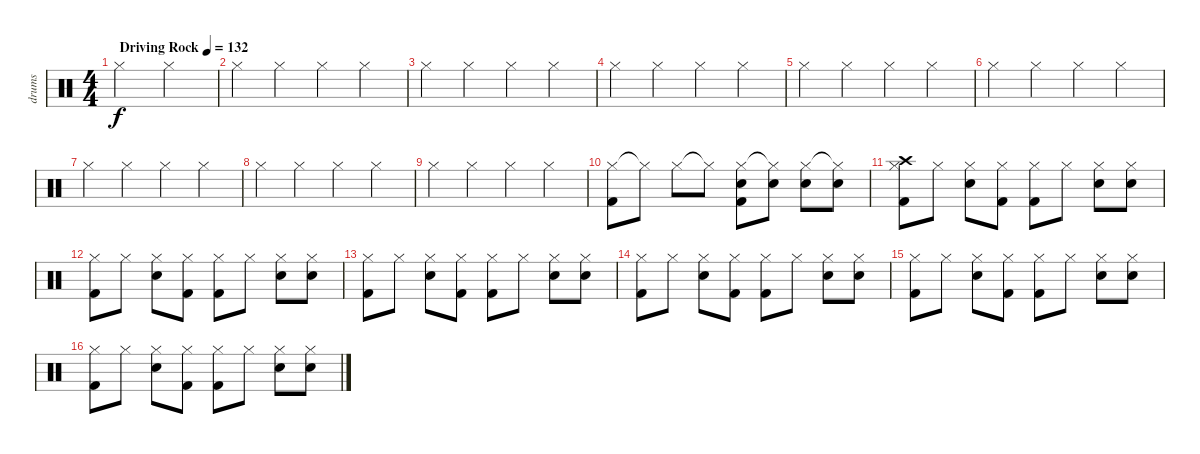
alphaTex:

\track ("drums" "drums") {instrument percussion}
\staff {score}
\articulation defaults
\ts (4 4)
\tempo (132 "Driving Rock")
\clef neutral
\ks c "Hi-Hat (closed)".2{dy f} "Hi-Hat (closed)".2
|
"Hi-Hat (closed)".4 "Hi-Hat (closed)".4 "Hi-Hat (closed)".4 "Hi-Hat (closed)".4 |
"Hi-Hat (closed)".4 "Hi-Hat (closed)".4 "Hi-Hat (closed)".4 "Hi-Hat (closed)".4 |
"Hi-Hat (closed)".4 "Hi-Hat (closed)".4 "Hi-Hat (closed)".4 "Hi-Hat (closed)".4 |
"Hi-Hat (closed)".4 "Hi-Hat (closed)".4 "Hi-Hat (closed)".4 "Hi-Hat (closed)".4 |
"Hi-Hat (closed)".4 "Hi-Hat (closed)".4 "Hi-Hat (closed)".4 "Hi-Hat (closed)".4 |
"Hi-Hat (closed)".4 "Hi-Hat (closed)".4 "Hi-Hat (closed)".4 "Hi-Hat (closed)".4 |
"Hi-Hat (closed)".4 "Hi-Hat (closed)".4 "Hi-Hat (closed)".4 "Hi-Hat (closed)".4 |
"Hi-Hat (closed)".4 "Hi-Hat (closed)".4 "Hi-Hat (closed)".4 "Hi-Hat (closed)".4 |
("Hi-Hat (closed)" "Kick (hit) 2").8 "Hi-Hat (closed)"{t}.8 "Hi-Hat (closed)".8 "Hi-Hat (closed)"{t}.8 ("Hi-Hat (closed)" "Snare (hit) 2" "Kick (hit) 2").8 ("Hi-Hat (closed)"{t} "Snare (hit) 2").8 ("Hi-Hat (closed)" "Snare (hit) 2").8 ("Hi-Hat (closed)"{t} "Snare (hit) 2").8 |
("Hi-Hat (closed)" "Crash high (hit)" "Kick (hit) 2").8 "Hi-Hat (closed)".8 ("Hi-Hat (closed)" "Snare (hit) 2").8 ("Hi-Hat (closed)" "Kick (hit) 2").8 ("Hi-Hat (closed)" "Kick (hit) 2").8 "Hi-Hat (closed)".8 ("Hi-Hat (closed)" "Snare (hit) 2").8 ("Hi-Hat (closed)" "Snare (hit) 2").8 |
("Hi-Hat (closed)" "Kick (hit) 2").8 "Hi-Hat (closed)".8 ("Hi-Hat (closed)" "Snare (hit) 2").8 ("Hi-Hat (closed)" "Kick (hit) 2").8 ("Hi-Hat (closed)" "Kick (hit) 2").8 "Hi-Hat (closed)".8 ("Hi-Hat (closed)" "Snare (hit) 2").8 ("Hi-Hat (closed)" "Snare (hit) 2").8 |
("Hi-Hat (closed)" "Kick (hit) 2").8 "Hi-Hat (closed)".8 ("Hi-Hat (closed)" "Snare (hit) 2").8 ("Hi-Hat (closed)" "Kick (hit) 2").8 ("Hi-Hat (closed)" "Kick (hit) 2").8 "Hi-Hat (closed)".8 ("Hi-Hat (closed)" "Snare (hit) 2").8 ("Hi-Hat (closed)" "Snare (hit) 2").8 |
("Hi-Hat (closed)" "Kick (hit) 2").8 "Hi-Hat (closed)".8 ("Hi-Hat (closed)" "Snare (hit) 2").8 ("Hi-Hat (closed)" "Kick (hit) 2").8 ("Hi-Hat (closed)" "Kick (hit) 2").8 "Hi-Hat (closed)".8 ("Hi-Hat (closed)" "Snare (hit) 2").8 ("Hi-Hat (closed)" "Snare (hit) 2").8 |
("Hi-Hat (closed)" "Kick (hit) 2").8 "Hi-Hat (closed)".8 ("Hi-Hat (closed)" "Snare (hit) 2").8 ("Hi-Hat (closed)" "Kick (hit) 2").8 ("Hi-Hat (closed)" "Kick (hit) 2").8 "Hi-Hat (closed)".8 ("Hi-Hat (closed)" "Snare (hit) 2").8 ("Hi-Hat (closed)" "Snare (hit) 2").8 |
("Hi-Hat (closed)" "Kick (hit) 2").8 "Hi-Hat (closed)".8 ("Hi-Hat (closed)" "Snare (hit) 2").8 ("Hi-Hat (closed)" "Kick (hit) 2").8 ("Hi-Hat (closed)" "Kick (hit) 2").8 "Hi-Hat (closed)".8 ("Hi-Hat (closed)" "Snare (hit) 2").8 ("Hi-Hat (closed)" "Snare (hit) 2").8
